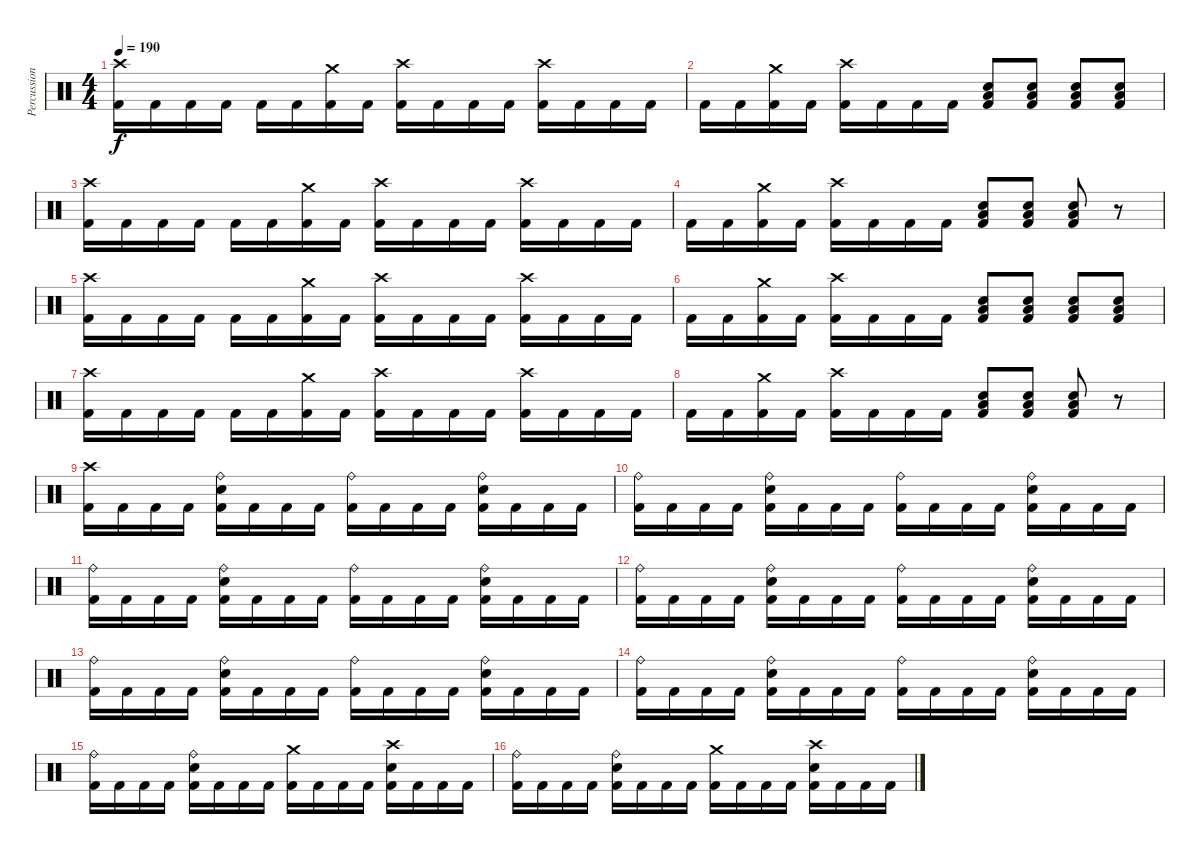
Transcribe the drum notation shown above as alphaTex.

\track ("Percussion" "Percussion") {instrument percussion}
\staff {score}
\articulation defaults
\ts (4 4)
\tempo 190
\clef neutral
\ks c
("Crash high (hit)" "Kick (hit) 2").16{dy f} "Kick (hit) 2".16 "Kick (hit) 2".16 "Kick (hit) 2".16 "Kick (hit) 2".16 "Kick (hit) 2".16 ("Crash medium (hit)" "Kick (hit) 2").16 "Kick (hit) 2".16 ("Crash high (hit)" "Kick (hit) 2").16 "Kick (hit) 2".16 "Kick (hit) 2".16 "Kick (hit) 2".16 ("Crash high (hit)" "Kick (hit) 2").16 "Kick (hit) 2".16 "Kick (hit) 2".16 "Kick (hit) 2".16 |
"Kick (hit) 2".16 "Kick (hit) 2".16 ("Crash medium (hit)" "Kick (hit) 2").16 "Kick (hit) 2".16 ("Crash high (hit)" "Kick (hit) 2").16 "Kick (hit) 2".16 "Kick (hit) 2".16 "Kick (hit) 2".16 ("Electric Snare (hit)" "Low Floor Tom (hit)" "Kick (hit) 2").8 ("Electric Snare (hit)" "Low Floor Tom (hit)" "Kick (hit) 2").8 ("Electric Snare (hit)" "Low Floor Tom (hit)" "Kick (hit) 2").8 ("Electric Snare (hit)" "Low Floor Tom (hit)" "Kick (hit) 2").8 |
("Crash high (hit)" "Kick (hit) 2").16 "Kick (hit) 2".16 "Kick (hit) 2".16 "Kick (hit) 2".16 "Kick (hit) 2".16 "Kick (hit) 2".16 ("Crash medium (hit)" "Kick (hit) 2").16 "Kick (hit) 2".16 ("Crash high (hit)" "Kick (hit) 2").16 "Kick (hit) 2".16 "Kick (hit) 2".16 "Kick (hit) 2".16 ("Crash high (hit)" "Kick (hit) 2").16 "Kick (hit) 2".16 "Kick (hit) 2".16 "Kick (hit) 2".16 |
"Kick (hit) 2".16 "Kick (hit) 2".16 ("Crash medium (hit)" "Kick (hit) 2").16 "Kick (hit) 2".16 ("Crash high (hit)" "Kick (hit) 2").16 "Kick (hit) 2".16 "Kick (hit) 2".16 "Kick (hit) 2".16 ("Electric Snare (hit)" "Low Floor Tom (hit)" "Kick (hit) 2").8 ("Electric Snare (hit)" "Low Floor Tom (hit)" "Kick (hit) 2").8 ("Electric Snare (hit)" "Low Floor Tom (hit)" "Kick (hit) 2").8 r.8 |
("Crash high (hit)" "Kick (hit) 2").16 "Kick (hit) 2".16 "Kick (hit) 2".16 "Kick (hit) 2".16 "Kick (hit) 2".16 "Kick (hit) 2".16 ("Crash medium (hit)" "Kick (hit) 2").16 "Kick (hit) 2".16 ("Crash high (hit)" "Kick (hit) 2").16 "Kick (hit) 2".16 "Kick (hit) 2".16 "Kick (hit) 2".16 ("Crash high (hit)" "Kick (hit) 2").16 "Kick (hit) 2".16 "Kick (hit) 2".16 "Kick (hit) 2".16 |
"Kick (hit) 2".16 "Kick (hit) 2".16 ("Crash medium (hit)" "Kick (hit) 2").16 "Kick (hit) 2".16 ("Crash high (hit)" "Kick (hit) 2").16 "Kick (hit) 2".16 "Kick (hit) 2".16 "Kick (hit) 2".16 ("Electric Snare (hit)" "Low Floor Tom (hit)" "Kick (hit) 2").8 ("Electric Snare (hit)" "Low Floor Tom (hit)" "Kick (hit) 2").8 ("Electric Snare (hit)" "Low Floor Tom (hit)" "Kick (hit) 2").8 ("Electric Snare (hit)" "Low Floor Tom (hit)" "Kick (hit) 2").8 |
("Crash high (hit)" "Kick (hit) 2").16 "Kick (hit) 2".16 "Kick (hit) 2".16 "Kick (hit) 2".16 "Kick (hit) 2".16 "Kick (hit) 2".16 ("Crash medium (hit)" "Kick (hit) 2").16 "Kick (hit) 2".16 ("Crash high (hit)" "Kick (hit) 2").16 "Kick (hit) 2".16 "Kick (hit) 2".16 "Kick (hit) 2".16 ("Crash high (hit)" "Kick (hit) 2").16 "Kick (hit) 2".16 "Kick (hit) 2".16 "Kick (hit) 2".16 |
"Kick (hit) 2".16 "Kick (hit) 2".16 ("Crash medium (hit)" "Kick (hit) 2").16 "Kick (hit) 2".16 ("Crash high (hit)" "Kick (hit) 2").16 "Kick (hit) 2".16 "Kick (hit) 2".16 "Kick (hit) 2".16 ("Electric Snare (hit)" "Low Floor Tom (hit)" "Kick (hit) 2").8 ("Electric Snare (hit)" "Low Floor Tom (hit)" "Kick (hit) 2").8 ("Electric Snare (hit)" "Low Floor Tom (hit)" "Kick (hit) 2").8 r.8 |
("Crash high (hit)" "Kick (hit) 2").16 "Kick (hit) 2".16 "Kick (hit) 2".16 "Kick (hit) 2".16 ("Ride (bell)" "Electric Snare (hit)" "Kick (hit) 2").16 "Kick (hit) 2".16 "Kick (hit) 2".16 "Kick (hit) 2".16 ("Ride (bell)" "Kick (hit) 2").16 "Kick (hit) 2".16 "Kick (hit) 2".16 "Kick (hit) 2".16 ("Ride (bell)" "Electric Snare (hit)" "Kick (hit) 2").16 "Kick (hit) 2".16 "Kick (hit) 2".16 "Kick (hit) 2".16 |
("Ride (bell)" "Kick (hit) 2").16 "Kick (hit) 2".16 "Kick (hit) 2".16 "Kick (hit) 2".16 ("Ride (bell)" "Electric Snare (hit)" "Kick (hit) 2").16 "Kick (hit) 2".16 "Kick (hit) 2".16 "Kick (hit) 2".16 ("Ride (bell)" "Kick (hit) 2").16 "Kick (hit) 2".16 "Kick (hit) 2".16 "Kick (hit) 2".16 ("Ride (bell)" "Electric Snare (hit)" "Kick (hit) 2").16 "Kick (hit) 2".16 "Kick (hit) 2".16 "Kick (hit) 2".16 |
("Ride (bell)" "Kick (hit) 2").16 "Kick (hit) 2".16 "Kick (hit) 2".16 "Kick (hit) 2".16 ("Ride (bell)" "Electric Snare (hit)" "Kick (hit) 2").16 "Kick (hit) 2".16 "Kick (hit) 2".16 "Kick (hit) 2".16 ("Ride (bell)" "Kick (hit) 2").16 "Kick (hit) 2".16 "Kick (hit) 2".16 "Kick (hit) 2".16 ("Ride (bell)" "Electric Snare (hit)" "Kick (hit) 2").16 "Kick (hit) 2".16 "Kick (hit) 2".16 "Kick (hit) 2".16 |
("Ride (bell)" "Kick (hit) 2").16 "Kick (hit) 2".16 "Kick (hit) 2".16 "Kick (hit) 2".16 ("Ride (bell)" "Electric Snare (hit)" "Kick (hit) 2").16 "Kick (hit) 2".16 "Kick (hit) 2".16 "Kick (hit) 2".16 ("Ride (bell)" "Kick (hit) 2").16 "Kick (hit) 2".16 "Kick (hit) 2".16 "Kick (hit) 2".16 ("Ride (bell)" "Electric Snare (hit)" "Kick (hit) 2").16 "Kick (hit) 2".16 "Kick (hit) 2".16 "Kick (hit) 2".16 |
("Ride (bell)" "Kick (hit) 2").16 "Kick (hit) 2".16 "Kick (hit) 2".16 "Kick (hit) 2".16 ("Ride (bell)" "Electric Snare (hit)" "Kick (hit) 2").16 "Kick (hit) 2".16 "Kick (hit) 2".16 "Kick (hit) 2".16 ("Ride (bell)" "Kick (hit) 2").16 "Kick (hit) 2".16 "Kick (hit) 2".16 "Kick (hit) 2".16 ("Ride (bell)" "Electric Snare (hit)" "Kick (hit) 2").16 "Kick (hit) 2".16 "Kick (hit) 2".16 "Kick (hit) 2".16 |
("Ride (bell)" "Kick (hit) 2").16 "Kick (hit) 2".16 "Kick (hit) 2".16 "Kick (hit) 2".16 ("Ride (bell)" "Electric Snare (hit)" "Kick (hit) 2").16 "Kick (hit) 2".16 "Kick (hit) 2".16 "Kick (hit) 2".16 ("Ride (bell)" "Kick (hit) 2").16 "Kick (hit) 2".16 "Kick (hit) 2".16 "Kick (hit) 2".16 ("Ride (bell)" "Electric Snare (hit)" "Kick (hit) 2").16 "Kick (hit) 2".16 "Kick (hit) 2".16 "Kick (hit) 2".16 |
("Ride (bell)" "Kick (hit) 2").16 "Kick (hit) 2".16 "Kick (hit) 2".16 "Kick (hit) 2".16 ("Ride (bell)" "Electric Snare (hit)" "Kick (hit) 2").16 "Kick (hit) 2".16 "Kick (hit) 2".16 "Kick (hit) 2".16 ("Crash medium (hit)" "Kick (hit) 2").16 "Kick (hit) 2".16 "Kick (hit) 2".16 "Kick (hit) 2".16 ("Crash high (hit)" "Electric Snare (hit)" "Kick (hit) 2").16 "Kick (hit) 2".16 "Kick (hit) 2".16 "Kick (hit) 2".16 |
("Ride (bell)" "Kick (hit) 2").16 "Kick (hit) 2".16 "Kick (hit) 2".16 "Kick (hit) 2".16 ("Ride (bell)" "Electric Snare (hit)" "Kick (hit) 2").16 "Kick (hit) 2".16 "Kick (hit) 2".16 "Kick (hit) 2".16 ("Crash medium (hit)" "Kick (hit) 2").16 "Kick (hit) 2".16 "Kick (hit) 2".16 "Kick (hit) 2".16 ("Crash high (hit)" "Electric Snare (hit)" "Kick (hit) 2").16 "Kick (hit) 2".16 "Kick (hit) 2".16 "Kick (hit) 2".16
